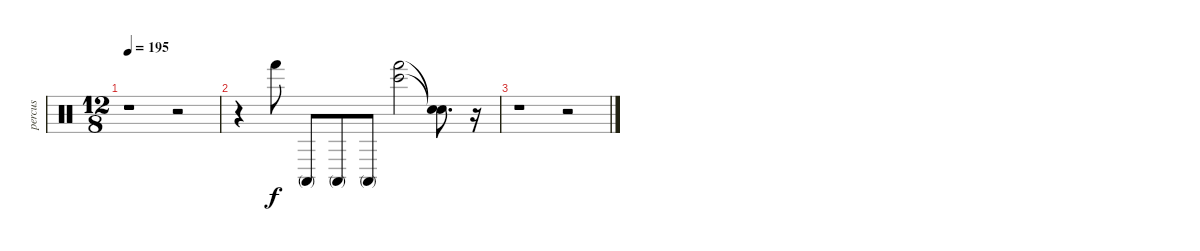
\track ("percus" "percus") {instrument percussion}
\staff {score}
\articulation defaults
\ts (12 8)
\tempo 195
\clef neutral
\ks c
r.1{dy f} r.2 |
r.4 "Hand (hit)".8 "Conga high (mute)".8 "Conga high (mute)".8 "Conga high (mute)".8 ("Bongo High (hit)" "Hand (hit)").2 ("Snare (hit)"{t} "Snare (hit)"{t}).8{d} r.16 |
r.1 r.2
